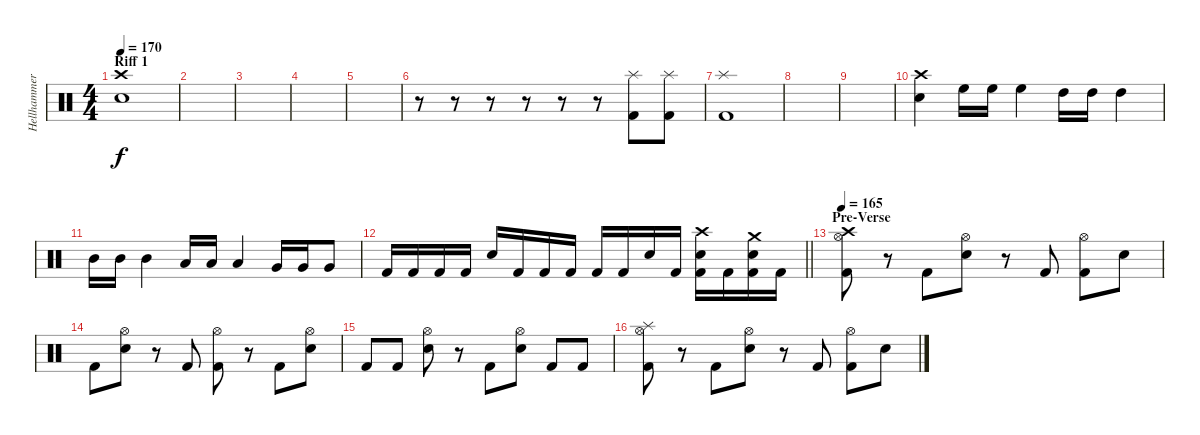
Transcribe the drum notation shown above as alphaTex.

\track ("Hellhammer" "Hellhammer") {instrument percussion}
\staff {score}
\articulation defaults
\ts (4 4)
\section ("" "Riff 1")
\tempo 170
\clef neutral
\ks c
("Snare (hit) 2" "Crash high (hit)").1{dy f} |
|
|
|
|
r.8 r.8 r.8 r.8 r.8 r.8 ("Splash (hit)" "Kick (hit) 2").8 ("Splash (hit)" "Kick (hit) 2").8 |
("Splash (hit)" "Kick (hit) 2").1 |
|
|
("Snare (hit) 2" "Crash high (hit)").4 "High Floor Tom (hit)".16 "High Floor Tom (hit)".16 "High Floor Tom (hit)".4 "High Tom (hit)".16 "High Tom (hit)".16 "High Tom (hit)".4 |
"Mid Tom (hit)".16 "Mid Tom (hit)".16 "Mid Tom (hit)".4 "Low Tom (hit)".16 "Low Tom (hit)".16 "Low Tom (hit)".4 "Very Low Tom (hit)".16 "Very Low Tom (hit)".16 "Very Low Tom (hit)".8 |
\barLineRight lightlight "Kick (hit) 2".16 "Kick (hit) 2".16 "Kick (hit) 2".16 "Kick (hit) 2".16 "Snare (hit) 2".16 "Kick (hit) 2".16 "Kick (hit) 2".16 "Kick (hit) 2".16 "Kick (hit) 2".16 "Kick (hit) 2".16 "Snare (hit) 2".16 "Kick (hit) 2".16
("Crash high (hit)" "Kick (hit) 2" "Snare (hit) 2").16 "Kick (hit) 2".16 ("Crash medium (hit)" "Kick (hit) 2" "Snare (hit) 2").16 "Kick (hit) 2".16 |
\section ("" "Pre-Verse")
\tempo 165
("Crash high (hit)" "Hi-Hat (open)" "Kick (hit) 2").8 r.8 "Kick (hit) 2".8 ("Hi-Hat (open)" "Snare (hit) 2").8 r.8 "Kick (hit) 2".8 ("Hi-Hat (open)" "Kick (hit) 2").8 "Snare (hit)".8 |
"Kick (hit) 2".8 ("Hi-Hat (open)" "Snare (hit) 2").8 r.8 "Kick (hit) 2".8 ("Hi-Hat (open)" "Kick (hit) 2").8 r.8 "Kick (hit) 2".8 ("Hi-Hat (open)" "Snare (hit) 2").8 |
"Kick (hit) 2".8 "Kick (hit) 2".8 ("Hi-Hat (open)" "Snare (hit) 2").8 r.8 "Kick (hit) 2".8 ("Hi-Hat (open)" "Snare (hit) 2").8 "Kick (hit) 2".8 "Kick (hit) 2".8 |
("Splash (hit)" "Hi-Hat (open)" "Kick (hit) 2").8 r.8 "Kick (hit) 2".8 ("Hi-Hat (open)" "Snare (hit) 2").8 r.8 "Kick (hit) 2".8 ("Hi-Hat (open)" "Kick (hit) 2").8 "Snare (hit)".8
